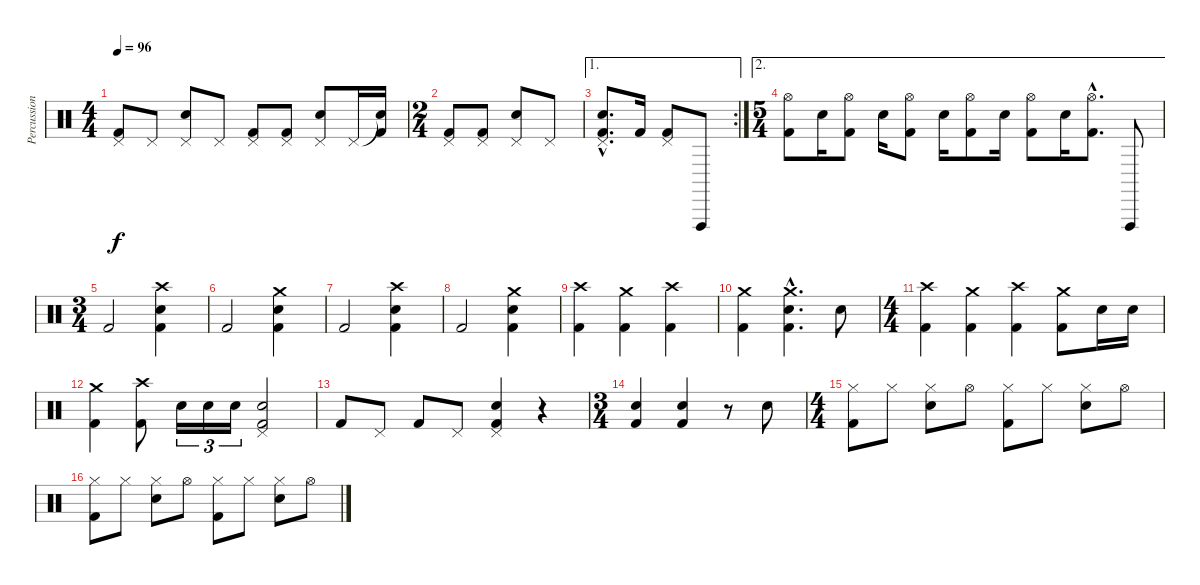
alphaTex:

\track ("Percussion" "Percussion") {instrument percussion}
\staff {score}
\articulation defaults
\ts (4 4)
\tempo 96
\clef neutral
\ks c
("Pedal Hi-Hat (hit)" "Kick (hit) 2").8{dy f} "Pedal Hi-Hat (hit)".8 ("Pedal Hi-Hat (hit)" "Snare (hit) 2").8 "Pedal Hi-Hat (hit)".8 ("Pedal Hi-Hat (hit)" "Kick (hit) 2").8 ("Pedal Hi-Hat (hit)" "Kick (hit) 2").8 ("Pedal Hi-Hat (hit)" "Snare (hit) 2").8 "Pedal Hi-Hat (hit)".16 ("Snare (hit)"{t} "Kick (hit) 2").16 |
\ts (2 4)
("Pedal Hi-Hat (hit)" "Kick (hit) 2").8 ("Pedal Hi-Hat (hit)" "Kick (hit) 2").8 ("Pedal Hi-Hat (hit)" "Snare (hit) 2").8 "Pedal Hi-Hat (hit)".8 |
\ae 1
\rc 2
("Pedal Hi-Hat (hit)"{hac} "Snare (hit) 2"{hac} "Kick (hit) 2"{hac}).8{d} "Kick (hit) 2".16 ("Pedal Hi-Hat (hit)" "Kick (hit) 2").8 "Vibraslap (hit)".8 |
\ae 2
\ts (5 4)
("Hi-Hat (open)" "Kick (hit) 2").8 "Snare (hit) 2".16 ("Hi-Hat (open)" "Kick (hit) 2").8 "Snare (hit) 2".16 ("Hi-Hat (open)" "Kick (hit) 2").8 "Snare (hit) 2".16 ("Hi-Hat (open)" "Kick (hit) 2").8 "Snare (hit) 2".16 ("Hi-Hat (open)" "Kick (hit) 2").8 "Snare (hit) 2".16 ("Hi-Hat (open)"{hac} "Kick (hit) 2"{hac}).8{d} "Vibraslap (hit)".8 |
\ts (3 4)
"Kick (hit) 2".2 ("Crash high (hit)" "Snare (hit) 2" "Kick (hit) 2").4 |
"Kick (hit) 2".2 ("Crash medium (hit)" "Snare (hit) 2" "Kick (hit) 2").4 |
"Kick (hit) 2".2 ("Crash high (hit)" "Snare (hit) 2" "Kick (hit) 2").4 |
"Kick (hit) 2".2 ("Crash medium (hit)" "Snare (hit) 2" "Kick (hit) 2").4 |
("Crash high (hit)" "Kick (hit) 2").4 ("Crash medium (hit)" "Kick (hit) 2").4 ("Crash high (hit)" "Kick (hit) 2").4 |
("Crash medium (hit)" "Kick (hit) 2").4 ("Crash medium (hit)"{hac} "Snare (hit) 2"{hac} "Kick (hit) 2"{hac}).4{d} "Snare (hit) 2".8 |
\ts (4 4)
("Crash high (hit)" "Kick (hit) 2").4 ("Crash medium (hit)" "Kick (hit) 2").4 ("Crash high (hit)" "Kick (hit) 2").4 ("Crash medium (hit)" "Kick (hit) 2").8 "Snare (hit) 2".16 "Snare (hit) 2".16 |
("Crash medium (hit)" "Kick (hit) 2").4 ("Crash high (hit)" "Kick (hit) 2").8 "Snare (hit) 2".16{tu (3 2)} "Snare (hit) 2".16{tu (3 2)} "Snare (hit) 2".16{tu (3 2)} ("Pedal Hi-Hat (hit)" "Snare (hit) 2" "Kick (hit) 2").2 |
"Kick (hit) 2".8 "Pedal Hi-Hat (hit)".8 "Kick (hit) 2".8 "Pedal Hi-Hat (hit)".8 ("Pedal Hi-Hat (hit)" "Snare (hit) 2" "Kick (hit) 2").4 r.4 |
\ts (3 4)
("Snare (hit) 2" "Kick (hit) 2").4 ("Snare (hit) 2" "Kick (hit) 2").4 r.8 "Snare (hit) 2".8 |
\ts (4 4)
("Hi-Hat (closed)" "Kick (hit) 2").8 "Hi-Hat (closed)".8 ("Hi-Hat (closed)" "Snare (hit) 2").8 "Hi-Hat (open)".8 ("Hi-Hat (closed)" "Kick (hit) 2").8 "Hi-Hat (closed)".8 ("Hi-Hat (closed)" "Snare (hit) 2").8 "Hi-Hat (open)".8 |
("Hi-Hat (closed)" "Kick (hit) 2").8 "Hi-Hat (closed)".8 ("Hi-Hat (closed)" "Snare (hit) 2").8 "Hi-Hat (open)".8 ("Hi-Hat (closed)" "Kick (hit) 2").8 "Hi-Hat (closed)".8 ("Hi-Hat (closed)" "Snare (hit) 2").8 "Hi-Hat (open)".8
